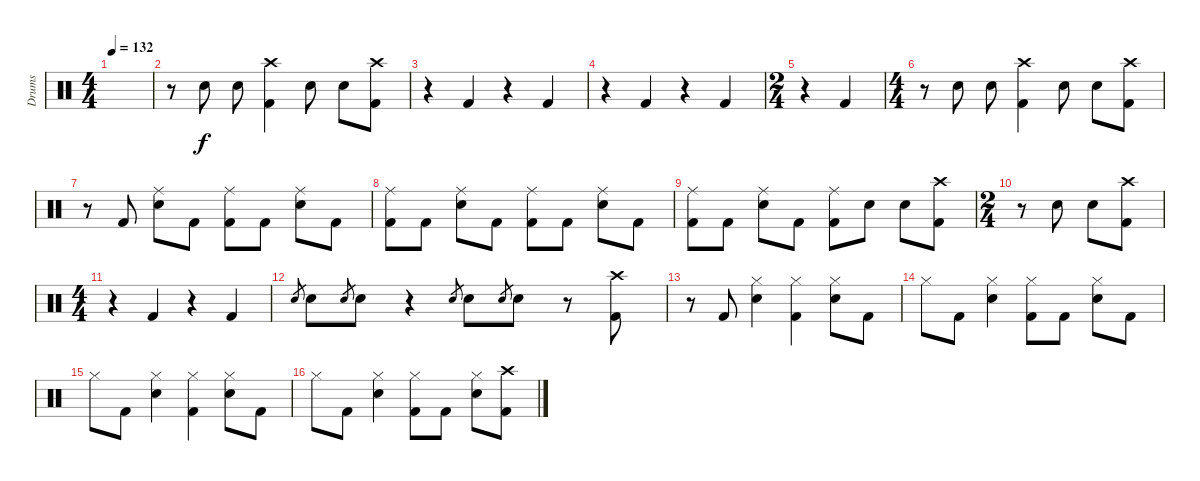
\track ("Drums" "Drums") {instrument percussion}
\staff {score}
\articulation defaults
\ts (4 4)
\tempo 132
\clef neutral
\ks c
|
r.8 "Electric Snare (hit)".8 "Electric Snare (hit)".8 ("Crash high (hit)" "Kick (hit) 2").4 "Electric Snare (hit)".8 "Electric Snare (hit)".8 ("Crash high (hit)" "Kick (hit) 2").8 |
r.4 "Kick (hit) 2".4 r.4 "Kick (hit) 2".4 |
r.4 "Kick (hit) 2".4 r.4 "Kick (hit) 2".4 |
\ts (2 4)
r.4 "Kick (hit) 2".4 |
\ts (4 4)
r.8 "Electric Snare (hit)".8 "Electric Snare (hit)".8 ("Crash high (hit)" "Kick (hit) 2").4 "Electric Snare (hit)".8 "Electric Snare (hit)".8 ("Crash high (hit)" "Kick (hit) 2").8 |
r.8 "Kick (hit) 2".8 ("Ride (middle)" "Electric Snare (hit)").8 "Kick (hit) 2".8 ("Ride (middle)" "Kick (hit) 2").8 "Kick (hit) 2".8 ("Ride (middle)" "Electric Snare (hit)").8 "Kick (hit) 2".8 |
("Ride (middle)" "Kick (hit) 2").8 "Kick (hit) 2".8 ("Ride (middle)" "Electric Snare (hit)").8 "Kick (hit) 2".8 ("Ride (middle)" "Kick (hit) 2").8 "Kick (hit) 2".8 ("Ride (middle)" "Electric Snare (hit)").8 "Kick (hit) 2".8 |
("Ride (middle)" "Kick (hit) 2").8 "Kick (hit) 2".8 ("Ride (middle)" "Electric Snare (hit)").8 "Kick (hit) 2".8 ("Ride (middle)" "Kick (hit) 2").8 "Electric Snare (hit)".8 "Electric Snare (hit)".8 ("Crash high (hit)" "Kick (hit) 2").8 |
\ts (2 4)
r.8 "Electric Snare (hit)".8 "Electric Snare (hit)".8 ("Crash high (hit)" "Kick (hit) 2").8 |
\ts (4 4)
r.4 "Kick (hit) 2".4 r.4 "Kick (hit) 2".4 |
"Electric Snare (hit)".8{gr} "Electric Snare (hit)".8 "Electric Snare (hit)".8{gr} "Electric Snare (hit)".8 r.4 "Electric Snare (hit)".8{gr} "Electric Snare (hit)".8 "Electric Snare (hit)".8{gr} "Electric Snare (hit)".8 r.8 ("Crash high (hit)" "Kick (hit) 2").8 |
r.8 "Kick (hit) 2".8 ("Hi-Hat (closed)" "Electric Snare (hit)").4 ("Hi-Hat (closed)" "Kick (hit) 2").4 ("Hi-Hat (closed)" "Electric Snare (hit)").8 "Kick (hit) 2".8 |
"Hi-Hat (closed)".8 "Kick (hit) 2".8 ("Hi-Hat (closed)" "Electric Snare (hit)").4 ("Hi-Hat (closed)" "Kick (hit) 2").8 "Kick (hit) 2".8 ("Hi-Hat (closed)" "Electric Snare (hit)").8 "Kick (hit) 2".8 |
"Hi-Hat (closed)".8 "Kick (hit) 2".8 ("Hi-Hat (closed)" "Electric Snare (hit)").4 ("Hi-Hat (closed)" "Kick (hit) 2").4 ("Hi-Hat (closed)" "Electric Snare (hit)").8 "Kick (hit) 2".8 |
"Hi-Hat (closed)".8 "Kick (hit) 2".8 ("Hi-Hat (closed)" "Electric Snare (hit)").4 ("Hi-Hat (closed)" "Kick (hit) 2").8 "Kick (hit) 2".8 ("Hi-Hat (closed)" "Electric Snare (hit)").8 ("Crash high (hit)" "Kick (hit) 2").8
